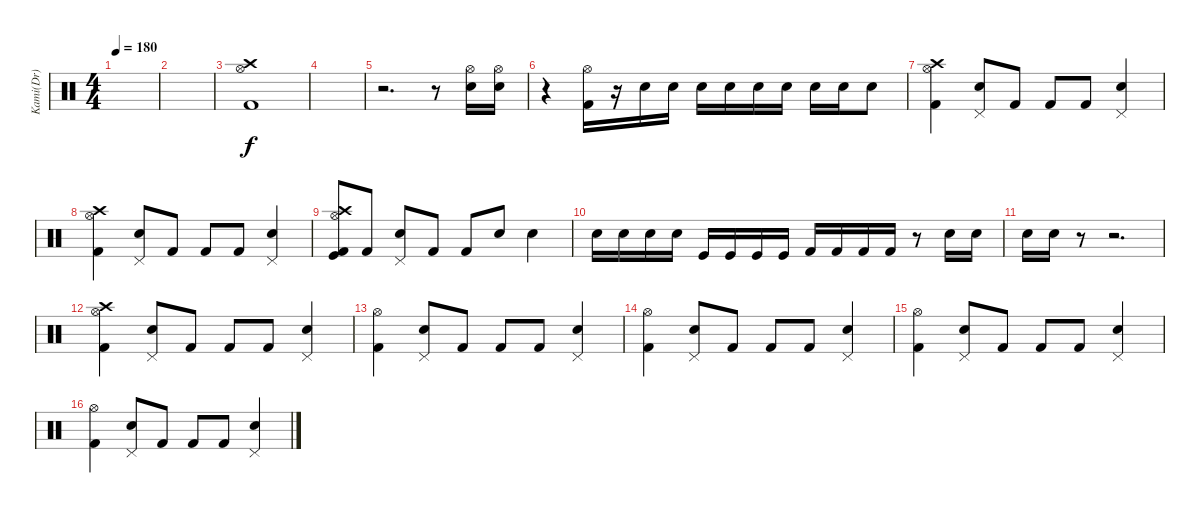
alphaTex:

\track ("Kami(Dr)" "Kami(Dr)") {instrument percussion}
\staff {score}
\articulation defaults
\ts (4 4)
\tempo 180
\clef neutral
\ks c
|
|
("Kick (hit) 2" "Hi-Hat (open)" "Crash high (hit)").1 |
|
r.2{d} r.8 ("Electric Snare (hit)" "Hi-Hat (open)").16 ("Electric Snare (hit)" "Hi-Hat (open)").16 |
r.4 ("Kick (hit) 2" "Hi-Hat (open)").16 r.16 "Snare (hit) 2".16 "Snare (hit) 2".16 "Snare (hit) 2".16 "Snare (hit) 2".16 "Snare (hit) 2".16 "Snare (hit) 2".16 "Snare (hit) 2".16 "Snare (hit) 2".16 "Metronome (bell)".8 |
("Kick (hit) 2" "Hi-Hat (open)" "Crash high (hit)").4 ("Electric Snare (hit)" "Pedal Hi-Hat (hit)").8 "Kick (hit) 2".8 "Kick (hit) 2".8 "Kick (hit) 2".8 ("Electric Snare (hit)" "Pedal Hi-Hat (hit)").4 |
("Kick (hit) 2" "Hi-Hat (open)" "Crash high (hit)").4 ("Electric Snare (hit)" "Pedal Hi-Hat (hit)").8 "Kick (hit) 2".8 "Kick (hit) 2".8 "Kick (hit) 2".8 ("Electric Snare (hit)" "Pedal Hi-Hat (hit)").4 |
("Kick (hit) 2" "Hi-Hat (open)" "Kick (hit)" "Crash high (hit)").8 "Kick (hit) 2".8 ("Electric Snare (hit)" "Pedal Hi-Hat (hit)").8 "Kick (hit) 2".8 "Kick (hit) 2".8 "Electric Snare (hit)".8 "Electric Snare (hit)".4 |
"Electric Snare (hit)".16 "Electric Snare (hit)".16 "Electric Snare (hit)".16 "Electric Snare (hit)".16 "Kick (hit)".16 "Kick (hit)".16 "Kick (hit)".16 "Kick (hit)".16 "Kick (hit) 2".16 "Kick (hit) 2".16 "Kick (hit) 2".16 "Kick (hit) 2".16 r.8 "Electric Snare (hit)".16 "Electric Snare (hit)".16 |
"Electric Snare (hit)".16 "Electric Snare (hit)".16 r.8 r.2{d} |
("Kick (hit) 2" "Hi-Hat (open)" "Crash high (hit)").4 ("Electric Snare (hit)" "Pedal Hi-Hat (hit)").8 "Kick (hit) 2".8 "Kick (hit) 2".8 "Kick (hit) 2".8 ("Electric Snare (hit)" "Pedal Hi-Hat (hit)").4 |
("Kick (hit) 2" "Hi-Hat (open)").4 ("Electric Snare (hit)" "Pedal Hi-Hat (hit)").8 "Kick (hit) 2".8 "Kick (hit) 2".8 "Kick (hit) 2".8 ("Electric Snare (hit)" "Pedal Hi-Hat (hit)").4 |
("Kick (hit) 2" "Hi-Hat (open)").4 ("Electric Snare (hit)" "Pedal Hi-Hat (hit)").8 "Kick (hit) 2".8 "Kick (hit) 2".8 "Kick (hit) 2".8 ("Electric Snare (hit)" "Pedal Hi-Hat (hit)").4 |
("Kick (hit) 2" "Hi-Hat (open)").4 ("Electric Snare (hit)" "Pedal Hi-Hat (hit)").8 "Kick (hit) 2".8 "Kick (hit) 2".8 "Kick (hit) 2".8 ("Electric Snare (hit)" "Pedal Hi-Hat (hit)").4 |
("Kick (hit) 2" "Hi-Hat (open)").4 ("Electric Snare (hit)" "Pedal Hi-Hat (hit)").8 "Kick (hit) 2".8 "Kick (hit) 2".8 "Kick (hit) 2".8 ("Electric Snare (hit)" "Pedal Hi-Hat (hit)").4
